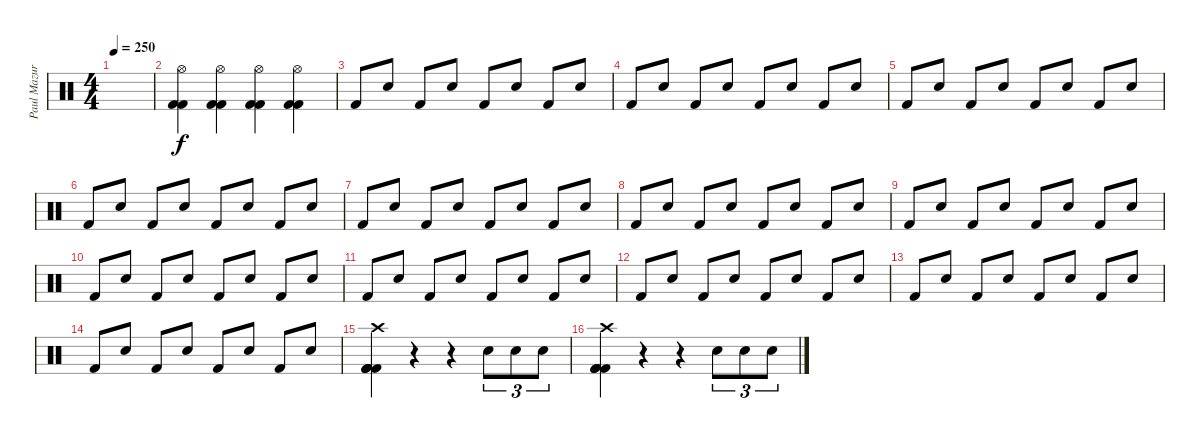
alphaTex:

\track ("Paul Mazurkiewicz" "Paul Mazur") {instrument percussion}
\staff {score}
\articulation defaults
\ts (4 4)
\tempo 250
\clef neutral
\ks c
|
("Hi-Hat (open)" "Kick (hit) 2" "Kick (hit) 2").4 ("Hi-Hat (open)" "Kick (hit) 2" "Kick (hit) 2").4 ("Hi-Hat (open)" "Kick (hit) 2" "Kick (hit) 2").4 ("Hi-Hat (open)" "Kick (hit) 2" "Kick (hit) 2").4 |
"Kick (hit) 2".8 "Electric Snare (hit)".8 "Kick (hit) 2".8 "Electric Snare (hit)".8 "Kick (hit) 2".8 "Electric Snare (hit)".8 "Kick (hit) 2".8 "Electric Snare (hit)".8 |
"Kick (hit) 2".8 "Electric Snare (hit)".8 "Kick (hit) 2".8 "Electric Snare (hit)".8 "Kick (hit) 2".8 "Electric Snare (hit)".8 "Kick (hit) 2".8 "Electric Snare (hit)".8 |
"Kick (hit) 2".8 "Electric Snare (hit)".8 "Kick (hit) 2".8 "Electric Snare (hit)".8 "Kick (hit) 2".8 "Electric Snare (hit)".8 "Kick (hit) 2".8 "Electric Snare (hit)".8 |
"Kick (hit) 2".8 "Electric Snare (hit)".8 "Kick (hit) 2".8 "Electric Snare (hit)".8 "Kick (hit) 2".8 "Electric Snare (hit)".8 "Kick (hit) 2".8 "Electric Snare (hit)".8 |
"Kick (hit) 2".8 "Electric Snare (hit)".8 "Kick (hit) 2".8 "Electric Snare (hit)".8 "Kick (hit) 2".8 "Electric Snare (hit)".8 "Kick (hit) 2".8 "Electric Snare (hit)".8 |
"Kick (hit) 2".8 "Electric Snare (hit)".8 "Kick (hit) 2".8 "Electric Snare (hit)".8 "Kick (hit) 2".8 "Electric Snare (hit)".8 "Kick (hit) 2".8 "Electric Snare (hit)".8 |
"Kick (hit) 2".8 "Electric Snare (hit)".8 "Kick (hit) 2".8 "Electric Snare (hit)".8 "Kick (hit) 2".8 "Electric Snare (hit)".8 "Kick (hit) 2".8 "Electric Snare (hit)".8 |
"Kick (hit) 2".8 "Electric Snare (hit)".8 "Kick (hit) 2".8 "Electric Snare (hit)".8 "Kick (hit) 2".8 "Electric Snare (hit)".8 "Kick (hit) 2".8 "Electric Snare (hit)".8 |
"Kick (hit) 2".8 "Electric Snare (hit)".8 "Kick (hit) 2".8 "Electric Snare (hit)".8 "Kick (hit) 2".8 "Electric Snare (hit)".8 "Kick (hit) 2".8 "Electric Snare (hit)".8 |
"Kick (hit) 2".8 "Electric Snare (hit)".8 "Kick (hit) 2".8 "Electric Snare (hit)".8 "Kick (hit) 2".8 "Electric Snare (hit)".8 "Kick (hit) 2".8 "Electric Snare (hit)".8 |
"Kick (hit) 2".8 "Electric Snare (hit)".8 "Kick (hit) 2".8 "Electric Snare (hit)".8 "Kick (hit) 2".8 "Electric Snare (hit)".8 "Kick (hit) 2".8 "Electric Snare (hit)".8 |
"Kick (hit) 2".8 "Electric Snare (hit)".8 "Kick (hit) 2".8 "Electric Snare (hit)".8 "Kick (hit) 2".8 "Electric Snare (hit)".8 "Kick (hit) 2".8 "Electric Snare (hit)".8 |
("Kick (hit) 2" "Kick (hit) 2" "Kick (hit) 2" "Kick (hit) 2" "Crash high (hit)").4 r.4 r.4 "Snare (hit) 2".8{tu (3 2)} "Snare (hit) 2".8{tu (3 2)} "Snare (hit) 2".8{tu (3 2)} |
("Kick (hit) 2" "Kick (hit) 2" "Kick (hit) 2" "Kick (hit) 2" "Crash high (hit)").4 r.4 r.4 "Snare (hit) 2".8{tu (3 2)} "Snare (hit) 2".8{tu (3 2)} "Snare (hit) 2".8{tu (3 2)}
